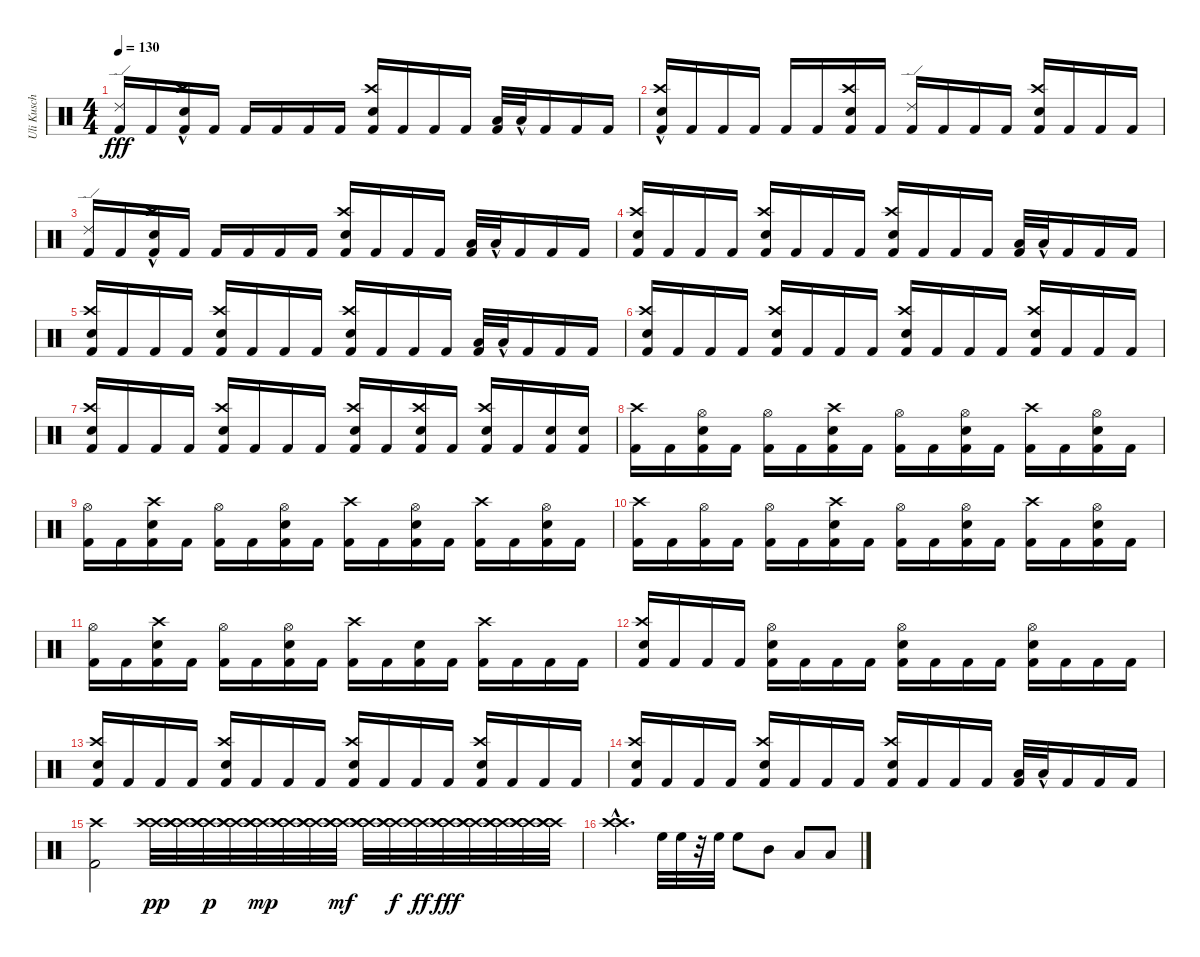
\track ("Uli Kusch" "Uli Kusch") {instrument percussion}
\staff {score}
\articulation defaults
\ts (4 4)
\tempo 130
\clef neutral
\ks c
("Kick (hit) 2" "Ride (edge) 2").16{dy fff} "Kick (hit) 2".16 ("Kick (hit) 2" "Crash high (hit)"{hac} "Electric Snare (hit)"{hac}).16 "Kick (hit) 2".16 "Kick (hit) 2".16 "Kick (hit) 2".16 "Kick (hit) 2".16 "Kick (hit) 2".16 ("Kick (hit) 2" "Crash high (hit)" "Electric Snare (hit)").16 "Kick (hit) 2".16 "Kick (hit) 2".16 "Kick (hit) 2".16 ("Kick (hit) 2" "Low Floor Tom (hit)").32 "Low Floor Tom (hit)"{hac}.32 "Kick (hit) 2".16 "Kick (hit) 2".16 "Kick (hit) 2".16 |
("Kick (hit) 2" "Crash high (hit)" "Electric Snare (hit)"{hac}).16 "Kick (hit) 2".16 "Kick (hit) 2".16 "Kick (hit) 2".16 "Kick (hit) 2".16 "Kick (hit) 2".16 ("Kick (hit) 2" "Crash high (hit)" "Electric Snare (hit)").16 "Kick (hit) 2".16 ("Kick (hit) 2" "Ride (edge) 2").16 "Kick (hit) 2".16 "Kick (hit) 2".16 "Kick (hit) 2".16 ("Kick (hit) 2" "Electric Snare (hit)" "Crash high (hit)").16 "Kick (hit) 2".16 "Kick (hit) 2".16 "Kick (hit) 2".16 |
("Kick (hit) 2" "Ride (edge) 2").16 "Kick (hit) 2".16 ("Kick (hit) 2" "Crash high (hit)"{hac} "Electric Snare (hit)"{hac}).16 "Kick (hit) 2".16 "Kick (hit) 2".16 "Kick (hit) 2".16 "Kick (hit) 2".16 "Kick (hit) 2".16 ("Kick (hit) 2" "Crash high (hit)" "Electric Snare (hit)").16 "Kick (hit) 2".16 "Kick (hit) 2".16 "Kick (hit) 2".16 ("Kick (hit) 2" "Low Floor Tom (hit)").32 "Low Floor Tom (hit)"{hac}.32 "Kick (hit) 2".16 "Kick (hit) 2".16 "Kick (hit) 2".16 |
("Kick (hit) 2" "Electric Snare (hit)" "Crash high (hit)").16 "Kick (hit) 2".16 "Kick (hit) 2".16 "Kick (hit) 2".16 ("Kick (hit) 2" "Electric Snare (hit)" "Crash high (hit)").16 "Kick (hit) 2".16 "Kick (hit) 2".16 "Kick (hit) 2".16 ("Kick (hit) 2" "Electric Snare (hit)" "Crash high (hit)").16 "Kick (hit) 2".16 "Kick (hit) 2".16 "Kick (hit) 2".16 ("Kick (hit) 2" "Low Floor Tom (hit)").32 "Low Floor Tom (hit)"{hac}.32 "Kick (hit) 2".16 "Kick (hit) 2".16 "Kick (hit) 2".16 |
("Kick (hit) 2" "Electric Snare (hit)" "Crash high (hit)").16 "Kick (hit) 2".16 "Kick (hit) 2".16 "Kick (hit) 2".16 ("Kick (hit) 2" "Electric Snare (hit)" "Crash high (hit)").16 "Kick (hit) 2".16 "Kick (hit) 2".16 "Kick (hit) 2".16 ("Kick (hit) 2" "Electric Snare (hit)" "Crash high (hit)").16 "Kick (hit) 2".16 "Kick (hit) 2".16 "Kick (hit) 2".16 ("Kick (hit) 2" "Low Floor Tom (hit)").32 "Low Floor Tom (hit)"{hac}.32 "Kick (hit) 2".16 "Kick (hit) 2".16 "Kick (hit) 2".16 |
("Kick (hit) 2" "Electric Snare (hit)" "Crash high (hit)").16 "Kick (hit) 2".16 "Kick (hit) 2".16 "Kick (hit) 2".16 ("Kick (hit) 2" "Electric Snare (hit)" "Crash high (hit)").16 "Kick (hit) 2".16 "Kick (hit) 2".16 "Kick (hit) 2".16 ("Kick (hit) 2" "Electric Snare (hit)" "Crash high (hit)").16 "Kick (hit) 2".16 "Kick (hit) 2".16 "Kick (hit) 2".16 ("Kick (hit) 2" "Electric Snare (hit)" "Crash high (hit)").16 "Kick (hit) 2".16 "Kick (hit) 2".16 "Kick (hit) 2".16 |
("Kick (hit) 2" "Electric Snare (hit)" "Crash high (hit)").16 "Kick (hit) 2".16 "Kick (hit) 2".16 "Kick (hit) 2".16 ("Kick (hit) 2" "Electric Snare (hit)" "Crash high (hit)").16 "Kick (hit) 2".16 "Kick (hit) 2".16 "Kick (hit) 2".16 ("Kick (hit) 2" "Crash high (hit)" "Electric Snare (hit)").16 "Kick (hit) 2".16 ("Kick (hit) 2" "Crash high (hit)" "Electric Snare (hit)").16 "Kick (hit) 2".16 ("Kick (hit) 2" "Crash high (hit)" "Electric Snare (hit)").16 "Kick (hit) 2".16 ("Kick (hit) 2" "Electric Snare (hit)").16 ("Kick (hit) 2" "Electric Snare (hit)").16 |
("Kick (hit) 2" "Crash high (hit)").16 "Kick (hit) 2".16 ("Kick (hit) 2" "Electric Snare (hit)" "Hi-Hat (open)").16 "Kick (hit) 2".16 ("Kick (hit) 2" "Hi-Hat (open)").16 "Kick (hit) 2".16 ("Kick (hit) 2" "Electric Snare (hit)" "Crash high (hit)").16 "Kick (hit) 2".16 ("Kick (hit) 2" "Hi-Hat (open)").16 "Kick (hit) 2".16 ("Kick (hit) 2" "Electric Snare (hit)" "Hi-Hat (open)").16 "Kick (hit) 2".16 ("Kick (hit) 2" "Crash high (hit)").16 "Kick (hit) 2".16 ("Kick (hit) 2" "Electric Snare (hit)" "Hi-Hat (open)").16 "Kick (hit) 2".16 |
("Kick (hit) 2" "Hi-Hat (open)").16 "Kick (hit) 2".16 ("Kick (hit) 2" "Electric Snare (hit)" "Crash high (hit)").16 "Kick (hit) 2".16 ("Kick (hit) 2" "Hi-Hat (open)").16 "Kick (hit) 2".16 ("Kick (hit) 2" "Electric Snare (hit)" "Hi-Hat (open)").16 "Kick (hit) 2".16 ("Kick (hit) 2" "Crash high (hit)").16 "Kick (hit) 2".16 ("Kick (hit) 2" "Electric Snare (hit)" "Hi-Hat (open)").16 "Kick (hit) 2".16 ("Kick (hit) 2" "Crash high (hit)").16 "Kick (hit) 2".16 ("Kick (hit) 2" "Electric Snare (hit)" "Hi-Hat (open)").16 "Kick (hit) 2".16 |
("Kick (hit) 2" "Crash high (hit)").16 "Kick (hit) 2".16 ("Kick (hit) 2" "Hi-Hat (open)").16 "Kick (hit) 2".16 ("Kick (hit) 2" "Hi-Hat (open)").16 "Kick (hit) 2".16 ("Kick (hit) 2" "Electric Snare (hit)" "Crash high (hit)").16 "Kick (hit) 2".16 ("Kick (hit) 2" "Hi-Hat (open)").16 "Kick (hit) 2".16 ("Kick (hit) 2" "Electric Snare (hit)" "Hi-Hat (open)").16 "Kick (hit) 2".16 ("Kick (hit) 2" "Crash high (hit)").16 "Kick (hit) 2".16 ("Kick (hit) 2" "Electric Snare (hit)" "Hi-Hat (open)").16 "Kick (hit) 2".16 |
("Kick (hit) 2" "Hi-Hat (open)").16 "Kick (hit) 2".16 ("Kick (hit) 2" "Electric Snare (hit)" "Crash high (hit)").16 "Kick (hit) 2".16 ("Kick (hit) 2" "Hi-Hat (open)").16 "Kick (hit) 2".16 ("Kick (hit) 2" "Electric Snare (hit)" "Hi-Hat (open)").16 "Kick (hit) 2".16 ("Kick (hit) 2" "Crash high (hit)").16 "Kick (hit) 2".16 ("Kick (hit) 2" "Electric Snare (hit)").16 "Kick (hit) 2".16 ("Kick (hit) 2" "Crash high (hit)").16 "Kick (hit) 2".16 "Kick (hit) 2".16 "Kick (hit) 2".16 |
("Kick (hit) 2" "Electric Snare (hit)" "Crash high (hit)").16 "Kick (hit) 2".16 "Kick (hit) 2".16 "Kick (hit) 2".16 ("Kick (hit) 2" "Electric Snare (hit)" "Hi-Hat (open)").16 "Kick (hit) 2".16 "Kick (hit) 2".16 "Kick (hit) 2".16 ("Kick (hit) 2" "Electric Snare (hit)" "Hi-Hat (open)").16 "Kick (hit) 2".16 "Kick (hit) 2".16 "Kick (hit) 2".16 ("Kick (hit) 2" "Electric Snare (hit)" "Hi-Hat (open)").16 "Kick (hit) 2".16 "Kick (hit) 2".16 "Kick (hit) 2".16 |
("Kick (hit) 2" "Electric Snare (hit)" "Crash high (hit)").16 "Kick (hit) 2".16 "Kick (hit) 2".16 "Kick (hit) 2".16 ("Kick (hit) 2" "Electric Snare (hit)" "Crash high (hit)").16 "Kick (hit) 2".16 "Kick (hit) 2".16 "Kick (hit) 2".16 ("Kick (hit) 2" "Electric Snare (hit)" "Crash high (hit)").16 "Kick (hit) 2".16 "Kick (hit) 2".16 "Kick (hit) 2".16 ("Kick (hit) 2" "Electric Snare (hit)" "Crash high (hit)").16 "Kick (hit) 2".16 "Kick (hit) 2".16 "Kick (hit) 2".16 |
("Kick (hit) 2" "Electric Snare (hit)" "Crash high (hit)").16 "Kick (hit) 2".16 "Kick (hit) 2".16 "Kick (hit) 2".16 ("Kick (hit) 2" "Electric Snare (hit)" "Crash high (hit)").16 "Kick (hit) 2".16 "Kick (hit) 2".16 "Kick (hit) 2".16 ("Kick (hit) 2" "Electric Snare (hit)" "Crash high (hit)").16 "Kick (hit) 2".16 "Kick (hit) 2".16 "Kick (hit) 2".16 ("Kick (hit) 2" "Low Floor Tom (hit)").32 "Low Floor Tom (hit)"{hac}.32 "Kick (hit) 2".16 "Kick (hit) 2".16 "Kick (hit) 2".16 |
("Kick (hit) 2" "Crash high (hit)").2 ("Crash high (hit)" "Crash high (hit)").32{dy pp} ("Crash high (hit)" "Crash high (hit)" "Crash high (hit)").32 ("Crash high (hit)" "Crash high (hit)" "Crash high (hit)").32{dy p} ("Crash high (hit)" "Crash high (hit)" "Crash high (hit)").32 ("Crash high (hit)" "Crash high (hit)" "Crash high (hit)").32{dy mp} ("Crash high (hit)" "Crash high (hit)" "Crash high (hit)").32 ("Crash high (hit)" "Crash high (hit)" "Crash high (hit)").32 ("Crash high (hit)" "Crash high (hit)" "Crash high (hit)").32{dy mf} ("Crash high (hit)" "Crash high (hit)" "Crash high (hit)").32 ("Crash high (hit)" "Crash high (hit)" "Crash high (hit)").32{dy f} ("Crash high (hit)" "Crash high (hit)").32{dy ff} ("Crash high (hit)" "Crash high (hit)" "Crash high (hit)").32{dy fff} ("Crash high (hit)" "Crash high (hit)" "Crash high (hit)").32 ("Crash high (hit)" "Crash high (hit)" "Crash high (hit)").32 ("Crash high (hit)" "Crash high (hit)" "Crash high (hit)").32 ("Crash high (hit)" "Crash high (hit)" "Crash high (hit)").32 |
("Crash high (hit)" "Crash high (hit)"{hac}).4{d} "High Floor Tom (hit)".32 "High Floor Tom (hit)".32 r.32 "High Floor Tom (hit)".32 "High Floor Tom (hit)".8 "Mid Tom (hit)".8 "Low Tom (hit)".8 "Low Floor Tom (hit)".8
